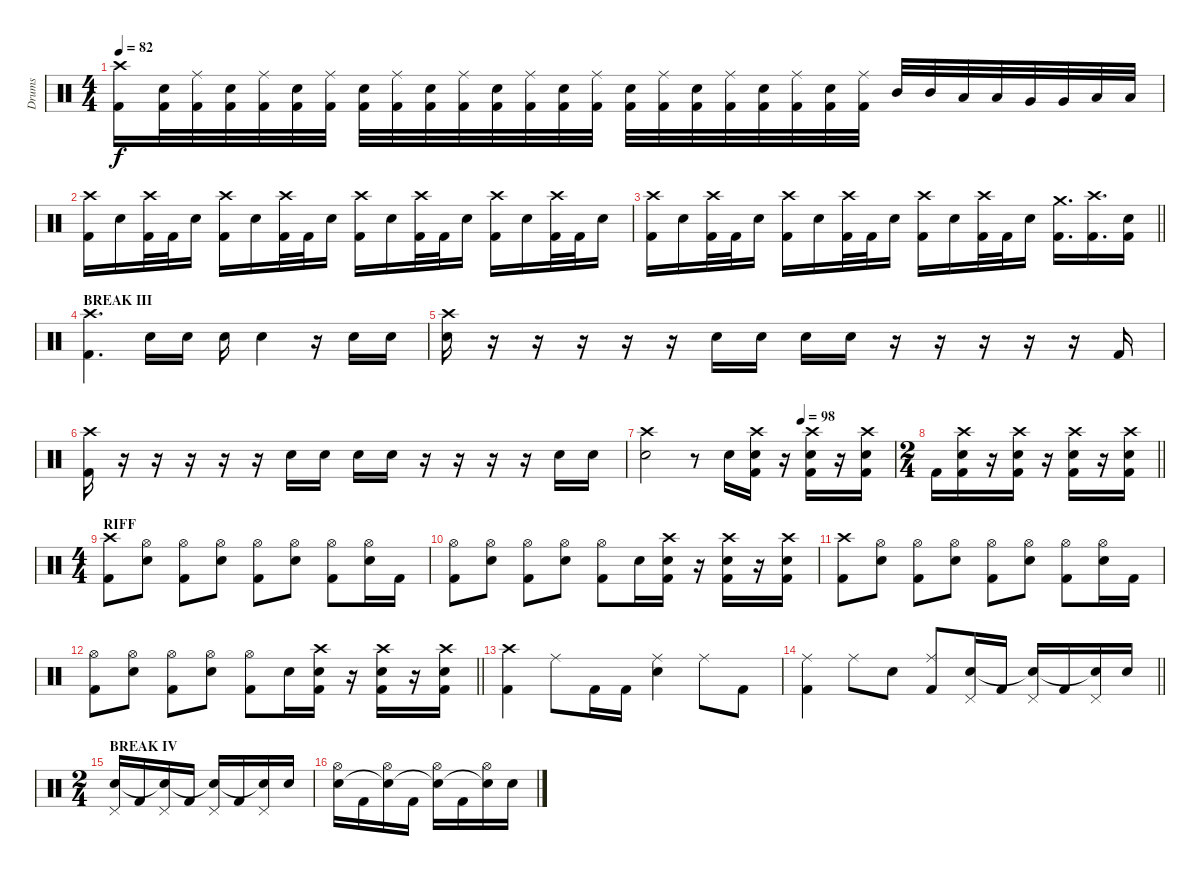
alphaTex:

\track ("Drums" "Drums") {instrument percussion}
\staff
\articulation defaults
\ts (4 4)
\tempo 82
\clef neutral
\ks c
("Crash high (hit)" "Kick (hit) 2").16{dy f} ("Snare (hit) 2" "Kick (hit) 2").32 ("Ride (middle)" "Kick (hit) 2").32 ("Snare (hit) 2" "Kick (hit) 2").32 ("Ride (middle)" "Kick (hit) 2").32 ("Snare (hit) 2" "Kick (hit) 2").32 ("Ride (middle)" "Kick (hit) 2").32 ("Snare (hit) 2" "Kick (hit) 2").32 ("Ride (middle)" "Kick (hit) 2").32 ("Snare (hit) 2" "Kick (hit) 2").32 ("Ride (middle)" "Kick (hit) 2").32 ("Snare (hit) 2" "Kick (hit) 2").32 ("Ride (middle)" "Kick (hit) 2").32 ("Snare (hit) 2" "Kick (hit) 2").32 ("Ride (middle)" "Kick (hit) 2").32 ("Snare (hit) 2" "Kick (hit) 2").32 ("Ride (middle)" "Kick (hit) 2").32 ("Snare (hit) 2" "Kick (hit) 2").32 ("Ride (middle)" "Kick (hit) 2").32 ("Snare (hit) 2" "Kick (hit) 2").32 ("Ride (middle)" "Kick (hit) 2").32 ("Snare (hit) 2" "Kick (hit) 2").32 ("Ride (middle)" "Kick (hit) 2").32 "Mid Tom (hit)".32 "Mid Tom (hit)".32 "Low Tom (hit)".32 "Low Tom (hit)".32 "Very Low Tom (hit)".32 "Very Low Tom (hit)".32 "Low Floor Tom (hit)".32 "Low Floor Tom (hit)".32 |
("Crash high (hit)" "Kick (hit) 2").16 "Snare (hit) 2".16 ("Crash high (hit)" "Kick (hit) 2").32 "Kick (hit) 2".32 "Snare (hit) 2".16 ("Crash high (hit)" "Kick (hit) 2").16 "Snare (hit) 2".16 ("Crash high (hit)" "Kick (hit) 2").32 "Kick (hit) 2".32 "Snare (hit) 2".16 ("Crash high (hit)" "Kick (hit) 2").16 "Snare (hit) 2".16 ("Crash high (hit)" "Kick (hit) 2").32 "Kick (hit) 2".32 "Snare (hit) 2".16 ("Crash high (hit)" "Kick (hit) 2").16 "Snare (hit) 2".16 ("Crash high (hit)" "Kick (hit) 2").32 "Kick (hit) 2".32 "Snare (hit) 2".16 |
\barLineRight lightlight
("Crash high (hit)" "Kick (hit) 2").16 "Snare (hit) 2".16 ("Crash high (hit)" "Kick (hit) 2").32 "Kick (hit) 2".32 "Snare (hit) 2".16 ("Crash high (hit)" "Kick (hit) 2").16 "Snare (hit) 2".16 ("Crash high (hit)" "Kick (hit) 2").32 "Kick (hit) 2".32 "Snare (hit) 2".16 ("Crash high (hit)" "Kick (hit) 2").16 "Snare (hit) 2".16 ("Crash high (hit)" "Kick (hit) 2").32 "Kick (hit) 2".32 "Snare (hit) 2".16 ("Crash medium (hit)" "Kick (hit) 2").16{d} ("Crash high (hit)" "Kick (hit) 2").16{d} ("Snare (hit) 2" "Kick (hit) 2").16 |
\section ("" "BREAK III")
("Crash high (hit)" "Kick (hit) 2").4{d} "Snare (hit) 2".16 "Snare (hit) 2".16 "Snare (hit) 2".16 "Snare (hit) 2".4 r.16 "Snare (hit) 2".16 "Snare (hit) 2".16 |
("Crash high (hit)" "Snare (hit) 2").16 r.16 r.16 r.16 r.16 r.16 "Snare (hit) 2".16 "Snare (hit) 2".16 "Snare (hit) 2".16 "Snare (hit) 2".16 r.16 r.16 r.16 r.16 r.16 "Kick (hit) 2".16 |
("Crash high (hit)" "Kick (hit) 2").16 r.16 r.16 r.16 r.16 r.16 "Snare (hit) 2".16 "Snare (hit) 2".16 "Snare (hit) 2".16 "Snare (hit) 2".16 r.16 r.16 r.16 r.16 "Snare (hit) 2".16 "Snare (hit) 2".16 |
\tempo (98 0.625)
("Crash high (hit)" "Snare (hit) 2").2 r.8 "Snare (hit) 2".16 ("Crash high (hit)" "Snare (hit) 2" "Kick (hit) 2").16 r.16 ("Crash high (hit)" "Snare (hit) 2" "Kick (hit) 2").16 r.16 ("Crash high (hit)" "Snare (hit) 2" "Kick (hit) 2").16 |
\ts (2 4)
\barLineRight lightlight "Kick (hit) 2".16
("Crash high (hit)" "Snare (hit) 2" "Kick (hit) 2").16 r.16 ("Crash high (hit)" "Snare (hit) 2" "Kick (hit) 2").16 r.16 ("Crash high (hit)" "Snare (hit) 2" "Kick (hit) 2").16 r.16 ("Crash high (hit)" "Snare (hit) 2" "Kick (hit) 2").16 |
\ts (4 4)
\section ("" "RIFF")
("Crash high (hit)" "Kick (hit) 2").8 ("Hi-Hat (open)" "Snare (hit) 2").8 ("Hi-Hat (open)" "Kick (hit) 2").8 ("Hi-Hat (open)" "Snare (hit) 2").8 ("Hi-Hat (open)" "Kick (hit) 2").8 ("Hi-Hat (open)" "Snare (hit) 2").8 ("Hi-Hat (open)" "Kick (hit) 2").8 ("Hi-Hat (open)" "Snare (hit) 2").16 "Kick (hit) 2".16 |
("Hi-Hat (open)" "Kick (hit) 2").8 ("Hi-Hat (open)" "Snare (hit) 2").8 ("Hi-Hat (open)" "Kick (hit) 2").8 ("Hi-Hat (open)" "Snare (hit) 2").8 ("Hi-Hat (open)" "Kick (hit) 2").8 "Snare (hit) 2".16 ("Crash high (hit)" "Snare (hit) 2" "Kick (hit) 2").16 r.16 ("Crash high (hit)" "Snare (hit) 2" "Kick (hit) 2").16 r.16 ("Crash high (hit)" "Snare (hit) 2" "Kick (hit) 2").16 |
("Crash high (hit)" "Kick (hit) 2").8 ("Hi-Hat (open)" "Snare (hit) 2").8 ("Hi-Hat (open)" "Kick (hit) 2").8 ("Hi-Hat (open)" "Snare (hit) 2").8 ("Hi-Hat (open)" "Kick (hit) 2").8 ("Hi-Hat (open)" "Snare (hit) 2").8 ("Hi-Hat (open)" "Kick (hit) 2").8 ("Hi-Hat (open)" "Snare (hit) 2").16 "Kick (hit) 2".16 |
\barLineRight lightlight
("Hi-Hat (open)" "Kick (hit) 2").8 ("Hi-Hat (open)" "Snare (hit) 2").8 ("Hi-Hat (open)" "Kick (hit) 2").8 ("Hi-Hat (open)" "Snare (hit) 2").8 ("Hi-Hat (open)" "Kick (hit) 2").8 "Snare (hit) 2".16 ("Crash high (hit)" "Snare (hit) 2" "Kick (hit) 2").16 r.16 ("Crash high (hit)" "Snare (hit) 2" "Kick (hit) 2").16 r.16 ("Crash high (hit)" "Snare (hit) 2" "Kick (hit) 2").16 |
("Crash high (hit)" "Kick (hit) 2").4 "Ride (middle)".8 "Kick (hit) 2".16 "Kick (hit) 2".16 ("Ride (middle)" "Snare (hit) 2").4 "Ride (middle)".8 "Kick (hit) 2".8 |
\barLineRight lightlight
("Ride (middle)" "Kick (hit) 2").4 "Ride (middle)".8 "Snare (hit) 2".8 ("Ride (middle)" "Kick (hit) 2").8 ("Pedal Hi-Hat (hit)" "Snare (hit) 2").16 "Kick (hit) 2".16 ("Pedal Hi-Hat (hit)" "Snare (hit)"{t}).16 "Kick (hit) 2".16 ("Pedal Hi-Hat (hit)" "Snare (hit)"{t}).16 "Snare (hit) 2".16 |
\ts (2 4)
\section ("" "BREAK IV")
("Pedal Hi-Hat (hit)" "Snare (hit) 2").16 "Kick (hit) 2".16 ("Pedal Hi-Hat (hit)" "Snare (hit)"{t}).16 "Kick (hit) 2".16 ("Pedal Hi-Hat (hit)" "Snare (hit)"{t}).16 "Kick (hit) 2".16 ("Pedal Hi-Hat (hit)" "Snare (hit)"{t}).16 "Snare (hit) 2".16 |
("Hi-Hat (open)" "Snare (hit) 2").16 "Kick (hit) 2".16 ("Hi-Hat (open)" "Snare (hit)"{t}).16 "Kick (hit) 2".16 ("Hi-Hat (open)" "Snare (hit)"{t}).16 "Kick (hit) 2".16 ("Hi-Hat (open)" "Snare (hit)"{t}).16 "Snare (hit) 2".16
